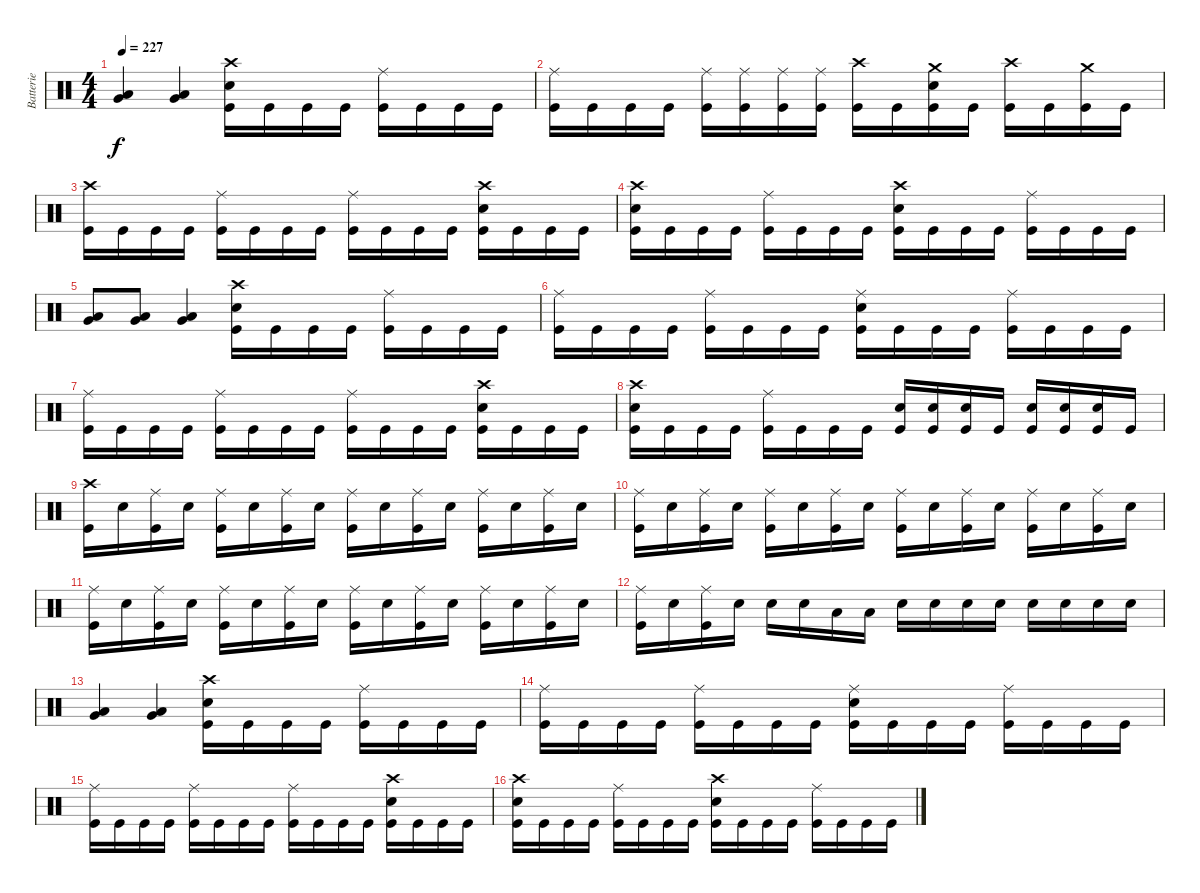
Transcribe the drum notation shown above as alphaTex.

\track ("Batterie" "Batterie") {instrument percussion}
\staff {score}
\articulation defaults
\ts (4 4)
\tempo 227
\clef neutral
\ks c
("Low Tom (hit)" "Very Low Tom (hit)").4{dy f} ("Low Tom (hit)" "Very Low Tom (hit)").4 ("Crash high (hit)" "Electric Snare (hit)" "Kick (hit)").16 "Kick (hit)".16 "Kick (hit)".16 "Kick (hit)".16 ("Ride (middle)" "Kick (hit)").16 "Kick (hit)".16 "Kick (hit)".16 "Kick (hit)".16 |
("Ride (middle)" "Kick (hit)").16 "Kick (hit)".16 "Kick (hit)".16 "Kick (hit)".16 ("Ride (middle)" "Kick (hit)").16 ("Ride (middle)" "Kick (hit)").16 ("Ride (middle)" "Kick (hit)").16 ("Ride (middle)" "Kick (hit)").16 ("Crash high (hit)" "Kick (hit)").16 "Kick (hit)".16 ("Crash medium (hit)" "Electric Snare (hit)" "Kick (hit)").16 "Kick (hit)".16 ("Crash high (hit)" "Kick (hit)").16 "Kick (hit)".16 ("Crash medium (hit)" "Kick (hit)").16 "Kick (hit)".16 |
("Crash high (hit)" "Kick (hit)").16 "Kick (hit)".16 "Kick (hit)".16 "Kick (hit)".16 ("Ride (middle)" "Kick (hit)").16 "Kick (hit)".16 "Kick (hit)".16 "Kick (hit)".16 ("Ride (middle)" "Kick (hit)").16 "Kick (hit)".16 "Kick (hit)".16 "Kick (hit)".16 ("Crash high (hit)" "Electric Snare (hit)" "Kick (hit)").16 "Kick (hit)".16 "Kick (hit)".16 "Kick (hit)".16 |
("Crash high (hit)" "Electric Snare (hit)" "Kick (hit)").16 "Kick (hit)".16 "Kick (hit)".16 "Kick (hit)".16 ("Ride (middle)" "Kick (hit)").16 "Kick (hit)".16 "Kick (hit)".16 "Kick (hit)".16 ("Crash high (hit)" "Electric Snare (hit)" "Kick (hit)").16 "Kick (hit)".16 "Kick (hit)".16 "Kick (hit)".16 ("Ride (middle)" "Kick (hit)").16 "Kick (hit)".16 "Kick (hit)".16 "Kick (hit)".16 |
("Low Tom (hit)" "Very Low Tom (hit)").8 ("Low Tom (hit)" "Very Low Tom (hit)").8 ("Low Tom (hit)" "Very Low Tom (hit)").4 ("Crash high (hit)" "Electric Snare (hit)" "Kick (hit)").16 "Kick (hit)".16 "Kick (hit)".16 "Kick (hit)".16 ("Ride (middle)" "Kick (hit)").16 "Kick (hit)".16 "Kick (hit)".16 "Kick (hit)".16 |
("Ride (middle)" "Kick (hit)").16 "Kick (hit)".16 "Kick (hit)".16 "Kick (hit)".16 ("Ride (middle)" "Kick (hit)").16 "Kick (hit)".16 "Kick (hit)".16 "Kick (hit)".16 ("Ride (middle)" "Electric Snare (hit)" "Kick (hit)").16 "Kick (hit)".16 "Kick (hit)".16 "Kick (hit)".16 ("Ride (middle)" "Kick (hit)").16 "Kick (hit)".16 "Kick (hit)".16 "Kick (hit)".16 |
("Ride (middle)" "Kick (hit)").16 "Kick (hit)".16 "Kick (hit)".16 "Kick (hit)".16 ("Ride (middle)" "Kick (hit)").16 "Kick (hit)".16 "Kick (hit)".16 "Kick (hit)".16 ("Ride (middle)" "Kick (hit)").16 "Kick (hit)".16 "Kick (hit)".16 "Kick (hit)".16 ("Crash high (hit)" "Electric Snare (hit)" "Kick (hit)").16 "Kick (hit)".16 "Kick (hit)".16 "Kick (hit)".16 |
("Crash high (hit)" "Electric Snare (hit)" "Kick (hit)").16 "Kick (hit)".16 "Kick (hit)".16 "Kick (hit)".16 ("Ride (middle)" "Kick (hit)").16 "Kick (hit)".16 "Kick (hit)".16 "Kick (hit)".16 ("Electric Snare (hit)" "Kick (hit)").16 ("Electric Snare (hit)" "Kick (hit)").16 ("Electric Snare (hit)" "Kick (hit)").16 "Kick (hit)".16 ("Electric Snare (hit)" "Kick (hit)").16 ("Electric Snare (hit)" "Kick (hit)").16 ("Electric Snare (hit)" "Kick (hit)").16 "Kick (hit)".16 |
("Crash high (hit)" "Kick (hit)").16 "Electric Snare (hit)".16 ("Ride (middle)" "Kick (hit)").16 "Electric Snare (hit)".16 ("Ride (middle)" "Kick (hit)").16 "Electric Snare (hit)".16 ("Ride (middle)" "Kick (hit)").16 "Electric Snare (hit)".16 ("Ride (middle)" "Kick (hit)").16 "Electric Snare (hit)".16 ("Ride (middle)" "Kick (hit)").16 "Electric Snare (hit)".16 ("Ride (middle)" "Kick (hit)").16 "Electric Snare (hit)".16 ("Ride (middle)" "Kick (hit)").16 "Electric Snare (hit)".16 |
("Ride (middle)" "Kick (hit)").16 "Electric Snare (hit)".16 ("Ride (middle)" "Kick (hit)").16 "Electric Snare (hit)".16 ("Ride (middle)" "Kick (hit)").16 "Electric Snare (hit)".16 ("Ride (middle)" "Kick (hit)").16 "Electric Snare (hit)".16 ("Ride (middle)" "Kick (hit)").16 "Electric Snare (hit)".16 ("Ride (middle)" "Kick (hit)").16 "Electric Snare (hit)".16 ("Ride (middle)" "Kick (hit)").16 "Electric Snare (hit)".16 ("Ride (middle)" "Kick (hit)").16 "Electric Snare (hit)".16 |
("Ride (middle)" "Kick (hit)").16 "Electric Snare (hit)".16 ("Ride (middle)" "Kick (hit)").16 "Electric Snare (hit)".16 ("Ride (middle)" "Kick (hit)").16 "Electric Snare (hit)".16 ("Ride (middle)" "Kick (hit)").16 "Electric Snare (hit)".16 ("Ride (middle)" "Kick (hit)").16 "Electric Snare (hit)".16 ("Ride (middle)" "Kick (hit)").16 "Electric Snare (hit)".16 ("Ride (middle)" "Kick (hit)").16 "Electric Snare (hit)".16 ("Ride (middle)" "Kick (hit)").16 "Electric Snare (hit)".16 |
("Ride (middle)" "Kick (hit)").16 "Electric Snare (hit)".16 ("Ride (middle)" "Kick (hit)").16 "Electric Snare (hit)".16 "Electric Snare (hit)".16 "Electric Snare (hit)".16 "Low Tom (hit)".16 "Low Tom (hit)".16 "Electric Snare (hit)".16 "Electric Snare (hit)".16 "Electric Snare (hit)".16 "Electric Snare (hit)".16 "Electric Snare (hit)".16 "Electric Snare (hit)".16 "Electric Snare (hit)".16 "Electric Snare (hit)".16 |
("Low Tom (hit)" "Very Low Tom (hit)").4 ("Low Tom (hit)" "Very Low Tom (hit)").4 ("Crash high (hit)" "Electric Snare (hit)" "Kick (hit)").16 "Kick (hit)".16 "Kick (hit)".16 "Kick (hit)".16 ("Ride (middle)" "Kick (hit)").16 "Kick (hit)".16 "Kick (hit)".16 "Kick (hit)".16 |
("Ride (middle)" "Kick (hit)").16 "Kick (hit)".16 "Kick (hit)".16 "Kick (hit)".16 ("Ride (middle)" "Kick (hit)").16 "Kick (hit)".16 "Kick (hit)".16 "Kick (hit)".16 ("Ride (middle)" "Electric Snare (hit)" "Kick (hit)").16 "Kick (hit)".16 "Kick (hit)".16 "Kick (hit)".16 ("Ride (middle)" "Kick (hit)").16 "Kick (hit)".16 "Kick (hit)".16 "Kick (hit)".16 |
("Ride (middle)" "Kick (hit)").16 "Kick (hit)".16 "Kick (hit)".16 "Kick (hit)".16 ("Ride (middle)" "Kick (hit)").16 "Kick (hit)".16 "Kick (hit)".16 "Kick (hit)".16 ("Ride (middle)" "Kick (hit)").16 "Kick (hit)".16 "Kick (hit)".16 "Kick (hit)".16 ("Crash high (hit)" "Electric Snare (hit)" "Kick (hit)").16 "Kick (hit)".16 "Kick (hit)".16 "Kick (hit)".16 |
("Crash high (hit)" "Electric Snare (hit)" "Kick (hit)").16 "Kick (hit)".16 "Kick (hit)".16 "Kick (hit)".16 ("Ride (middle)" "Kick (hit)").16 "Kick (hit)".16 "Kick (hit)".16 "Kick (hit)".16 ("Crash high (hit)" "Electric Snare (hit)" "Kick (hit)").16 "Kick (hit)".16 "Kick (hit)".16 "Kick (hit)".16 ("Ride (middle)" "Kick (hit)").16 "Kick (hit)".16 "Kick (hit)".16 "Kick (hit)".16
